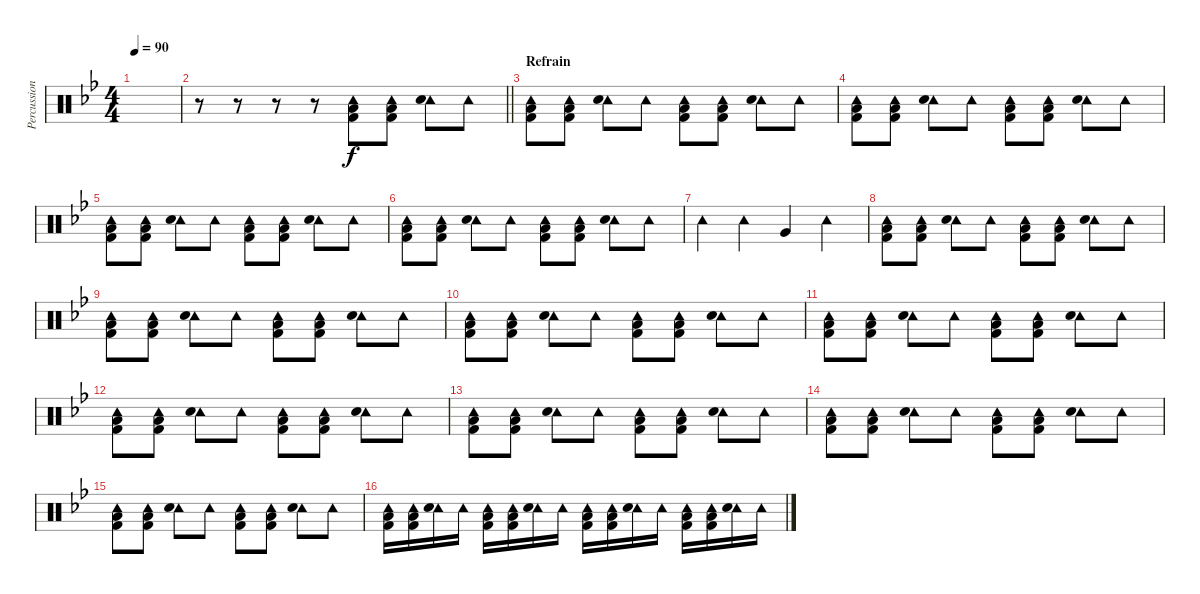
\track ("Percussion" "Percussion") {instrument percussion}
\staff {score}
\articulation defaults
\ts (4 4)
\tempo 90
\clef neutral
\ks bb
|
\barLineRight lightlight
r.8 r.8 r.8 r.8 ("Tambourine (hit)" "Kick (hit) 2" "Low Tom (hit)").8 ("Tambourine (hit)" "Kick (hit) 2" "Low Tom (hit)").8 ("Tambourine (hit)" "Electric Snare (hit)").8 "Tambourine (hit)".8 |
\section ("" "Refrain")
("Tambourine (hit)" "Kick (hit) 2" "Low Tom (hit)").8 ("Tambourine (hit)" "Kick (hit) 2" "Low Tom (hit)").8 ("Tambourine (hit)" "Electric Snare (hit)").8 "Tambourine (hit)".8 ("Tambourine (hit)" "Kick (hit) 2" "Low Tom (hit)").8 ("Tambourine (hit)" "Kick (hit) 2" "Low Tom (hit)").8 ("Tambourine (hit)" "Electric Snare (hit)").8 "Tambourine (hit)".8 |
("Tambourine (hit)" "Kick (hit) 2" "Low Tom (hit)").8 ("Tambourine (hit)" "Kick (hit) 2" "Low Tom (hit)").8 ("Tambourine (hit)" "Electric Snare (hit)").8 "Tambourine (hit)".8 ("Tambourine (hit)" "Kick (hit) 2" "Low Tom (hit)").8 ("Tambourine (hit)" "Kick (hit) 2" "Low Tom (hit)").8 ("Tambourine (hit)" "Electric Snare (hit)").8 "Tambourine (hit)".8 |
("Tambourine (hit)" "Kick (hit) 2" "Low Tom (hit)").8 ("Tambourine (hit)" "Kick (hit) 2" "Low Tom (hit)").8 ("Tambourine (hit)" "Electric Snare (hit)").8 "Tambourine (hit)".8 ("Tambourine (hit)" "Kick (hit) 2" "Low Tom (hit)").8 ("Tambourine (hit)" "Kick (hit) 2" "Low Tom (hit)").8 ("Tambourine (hit)" "Electric Snare (hit)").8 "Tambourine (hit)".8 |
("Tambourine (hit)" "Kick (hit) 2" "Low Tom (hit)").8 ("Tambourine (hit)" "Kick (hit) 2" "Low Tom (hit)").8 ("Tambourine (hit)" "Electric Snare (hit)").8 "Tambourine (hit)".8 ("Tambourine (hit)" "Kick (hit) 2" "Low Tom (hit)").8 ("Tambourine (hit)" "Kick (hit) 2" "Low Tom (hit)").8 ("Tambourine (hit)" "Electric Snare (hit)").8 "Tambourine (hit)".8 |
"Tambourine (hit)".4 "Tambourine (hit)".4 "Very Low Tom (hit)".4 "Tambourine (hit)".4 |
("Tambourine (hit)" "Kick (hit) 2" "Low Tom (hit)").8 ("Tambourine (hit)" "Kick (hit) 2" "Low Tom (hit)").8 ("Tambourine (hit)" "Electric Snare (hit)").8 "Tambourine (hit)".8 ("Tambourine (hit)" "Kick (hit) 2" "Low Tom (hit)").8 ("Tambourine (hit)" "Kick (hit) 2" "Low Tom (hit)").8 ("Tambourine (hit)" "Electric Snare (hit)").8 "Tambourine (hit)".8 |
("Tambourine (hit)" "Kick (hit) 2" "Low Tom (hit)").8 ("Tambourine (hit)" "Kick (hit) 2" "Low Tom (hit)").8 ("Tambourine (hit)" "Electric Snare (hit)").8 "Tambourine (hit)".8 ("Tambourine (hit)" "Kick (hit) 2" "Low Tom (hit)").8 ("Tambourine (hit)" "Kick (hit) 2" "Low Tom (hit)").8 ("Tambourine (hit)" "Electric Snare (hit)").8 "Tambourine (hit)".8 |
("Tambourine (hit)" "Kick (hit) 2" "Low Tom (hit)").8 ("Tambourine (hit)" "Kick (hit) 2" "Low Tom (hit)").8 ("Tambourine (hit)" "Electric Snare (hit)").8 "Tambourine (hit)".8 ("Tambourine (hit)" "Kick (hit) 2" "Low Tom (hit)").8 ("Tambourine (hit)" "Kick (hit) 2" "Low Tom (hit)").8 ("Tambourine (hit)" "Electric Snare (hit)").8 "Tambourine (hit)".8 |
("Tambourine (hit)" "Kick (hit) 2" "Low Tom (hit)").8 ("Tambourine (hit)" "Kick (hit) 2" "Low Tom (hit)").8 ("Tambourine (hit)" "Electric Snare (hit)").8 "Tambourine (hit)".8 ("Tambourine (hit)" "Kick (hit) 2" "Low Tom (hit)").8 ("Tambourine (hit)" "Kick (hit) 2" "Low Tom (hit)").8 ("Tambourine (hit)" "Electric Snare (hit)").8 "Tambourine (hit)".8 |
("Tambourine (hit)" "Kick (hit) 2" "Low Tom (hit)").8 ("Tambourine (hit)" "Kick (hit) 2" "Low Tom (hit)").8 ("Tambourine (hit)" "Electric Snare (hit)").8 "Tambourine (hit)".8 ("Tambourine (hit)" "Kick (hit) 2" "Low Tom (hit)").8 ("Tambourine (hit)" "Kick (hit) 2" "Low Tom (hit)").8 ("Tambourine (hit)" "Electric Snare (hit)").8 "Tambourine (hit)".8 |
("Tambourine (hit)" "Kick (hit) 2" "Low Tom (hit)").8 ("Tambourine (hit)" "Kick (hit) 2" "Low Tom (hit)").8 ("Tambourine (hit)" "Electric Snare (hit)").8 "Tambourine (hit)".8 ("Tambourine (hit)" "Kick (hit) 2" "Low Tom (hit)").8 ("Tambourine (hit)" "Kick (hit) 2" "Low Tom (hit)").8 ("Tambourine (hit)" "Electric Snare (hit)").8 "Tambourine (hit)".8 |
("Tambourine (hit)" "Kick (hit) 2" "Low Tom (hit)").8 ("Tambourine (hit)" "Kick (hit) 2" "Low Tom (hit)").8 ("Tambourine (hit)" "Electric Snare (hit)").8 "Tambourine (hit)".8 ("Tambourine (hit)" "Kick (hit) 2" "Low Tom (hit)").8 ("Tambourine (hit)" "Kick (hit) 2" "Low Tom (hit)").8 ("Tambourine (hit)" "Electric Snare (hit)").8 "Tambourine (hit)".8 |
("Tambourine (hit)" "Kick (hit) 2" "Low Tom (hit)").8 ("Tambourine (hit)" "Kick (hit) 2" "Low Tom (hit)").8 ("Tambourine (hit)" "Electric Snare (hit)").8 "Tambourine (hit)".8 ("Tambourine (hit)" "Kick (hit) 2" "Low Tom (hit)").8 ("Tambourine (hit)" "Kick (hit) 2" "Low Tom (hit)").8 ("Tambourine (hit)" "Electric Snare (hit)").8 "Tambourine (hit)".8 |
("Tambourine (hit)" "Kick (hit) 2" "Low Tom (hit)").16 ("Tambourine (hit)" "Kick (hit) 2" "Low Tom (hit)").16 ("Tambourine (hit)" "Electric Snare (hit)").16 "Tambourine (hit)".16 ("Tambourine (hit)" "Kick (hit) 2" "Low Tom (hit)").16 ("Tambourine (hit)" "Kick (hit) 2" "Low Tom (hit)").16 ("Tambourine (hit)" "Electric Snare (hit)").16 "Tambourine (hit)".16 ("Tambourine (hit)" "Kick (hit) 2" "Low Tom (hit)").16 ("Tambourine (hit)" "Kick (hit) 2" "Low Tom (hit)").16 ("Tambourine (hit)" "Electric Snare (hit)").16 "Tambourine (hit)".16 ("Tambourine (hit)" "Kick (hit) 2" "Low Tom (hit)").16 ("Tambourine (hit)" "Kick (hit) 2" "Low Tom (hit)").16 ("Tambourine (hit)" "Electric Snare (hit)").16 "Tambourine (hit)".16
